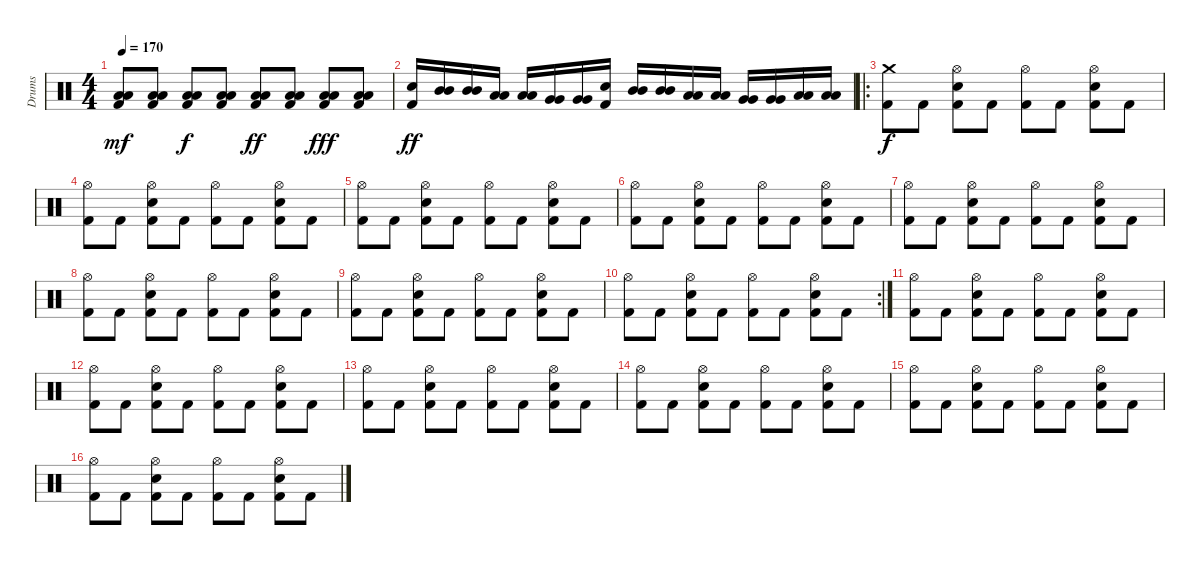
\track ("Drums" "Drums") {instrument percussion}
\staff {score}
\articulation defaults
\ts (4 4)
\tempo 170
\clef neutral
\ks c
("Low Floor Tom (hit)" "Low Floor Tom (hit)" "Kick (hit) 2").8{dy mf} ("Low Floor Tom (hit)" "Low Floor Tom (hit)" "Kick (hit) 2").8 ("Low Floor Tom (hit)" "Low Floor Tom (hit)" "Kick (hit) 2").8{dy f} ("Low Floor Tom (hit)" "Low Floor Tom (hit)" "Kick (hit) 2").8 ("Low Floor Tom (hit)" "Low Floor Tom (hit)" "Kick (hit) 2").8{dy ff} ("Low Floor Tom (hit)" "Low Floor Tom (hit)" "Kick (hit) 2").8 ("Low Floor Tom (hit)" "Low Floor Tom (hit)" "Kick (hit) 2").8{dy fff} ("Low Floor Tom (hit)" "Low Floor Tom (hit)" "Kick (hit) 2").8 |
("Snare (hit) 2" "Kick (hit) 2").16{dy ff} ("Mid Tom (hit)" "Mid Tom (hit)").16 ("Mid Tom (hit)" "Mid Tom (hit)").16 ("Low Tom (hit)" "Low Tom (hit)").16 ("Low Tom (hit)" "Low Tom (hit)").16 ("Very Low Tom (hit)" "Very Low Tom (hit)").16 ("Very Low Tom (hit)" "Very Low Tom (hit)").16 ("Snare (hit) 2" "Kick (hit) 2").16 ("Mid Tom (hit)" "Mid Tom (hit)").16 ("Mid Tom (hit)" "Mid Tom (hit)").16 ("Low Tom (hit)" "Low Tom (hit)").16 ("Low Tom (hit)" "Low Tom (hit)").16 ("Very Low Tom (hit)" "Very Low Tom (hit)").16 ("Very Low Tom (hit)" "Very Low Tom (hit)").16 ("Low Floor Tom (hit)" "Low Floor Tom (hit)").16 ("Low Floor Tom (hit)" "Low Floor Tom (hit)").16 |
\ro
("Crash medium (hit)" "Kick (hit) 2").8{dy f} "Kick (hit) 2".8 ("Hi-Hat (open)" "Snare (hit) 2" "Kick (hit) 2").8 "Kick (hit) 2".8 ("Hi-Hat (open)" "Kick (hit) 2").8 "Kick (hit) 2".8 ("Hi-Hat (open)" "Snare (hit) 2" "Kick (hit) 2").8 "Kick (hit) 2".8 |
("Hi-Hat (open)" "Kick (hit) 2").8 "Kick (hit) 2".8 ("Hi-Hat (open)" "Snare (hit) 2" "Kick (hit) 2").8 "Kick (hit) 2".8 ("Hi-Hat (open)" "Kick (hit) 2").8 "Kick (hit) 2".8 ("Hi-Hat (open)" "Snare (hit) 2" "Kick (hit) 2").8 "Kick (hit) 2".8 |
("Hi-Hat (open)" "Kick (hit) 2").8 "Kick (hit) 2".8 ("Hi-Hat (open)" "Snare (hit) 2" "Kick (hit) 2").8 "Kick (hit) 2".8 ("Hi-Hat (open)" "Kick (hit) 2").8 "Kick (hit) 2".8 ("Hi-Hat (open)" "Snare (hit) 2" "Kick (hit) 2").8 "Kick (hit) 2".8 |
("Hi-Hat (open)" "Kick (hit) 2").8 "Kick (hit) 2".8 ("Hi-Hat (open)" "Snare (hit) 2" "Kick (hit) 2").8 "Kick (hit) 2".8 ("Hi-Hat (open)" "Kick (hit) 2").8 "Kick (hit) 2".8 ("Hi-Hat (open)" "Snare (hit) 2" "Kick (hit) 2").8 "Kick (hit) 2".8 |
("Hi-Hat (open)" "Kick (hit) 2").8 "Kick (hit) 2".8 ("Hi-Hat (open)" "Snare (hit) 2" "Kick (hit) 2").8 "Kick (hit) 2".8 ("Hi-Hat (open)" "Kick (hit) 2").8 "Kick (hit) 2".8 ("Hi-Hat (open)" "Snare (hit) 2" "Kick (hit) 2").8 "Kick (hit) 2".8 |
("Hi-Hat (open)" "Kick (hit) 2").8 "Kick (hit) 2".8 ("Hi-Hat (open)" "Snare (hit) 2" "Kick (hit) 2").8 "Kick (hit) 2".8 ("Hi-Hat (open)" "Kick (hit) 2").8 "Kick (hit) 2".8 ("Hi-Hat (open)" "Snare (hit) 2" "Kick (hit) 2").8 "Kick (hit) 2".8 |
("Hi-Hat (open)" "Kick (hit) 2").8 "Kick (hit) 2".8 ("Hi-Hat (open)" "Snare (hit) 2" "Kick (hit) 2").8 "Kick (hit) 2".8 ("Hi-Hat (open)" "Kick (hit) 2").8 "Kick (hit) 2".8 ("Hi-Hat (open)" "Snare (hit) 2" "Kick (hit) 2").8 "Kick (hit) 2".8 |
\rc 2
("Hi-Hat (open)" "Kick (hit) 2").8 "Kick (hit) 2".8 ("Hi-Hat (open)" "Snare (hit) 2" "Kick (hit) 2").8 "Kick (hit) 2".8 ("Hi-Hat (open)" "Kick (hit) 2").8 "Kick (hit) 2".8 ("Hi-Hat (open)" "Snare (hit) 2" "Kick (hit) 2").8 "Kick (hit) 2".8 |
("Hi-Hat (open)" "Kick (hit) 2").8 "Kick (hit) 2".8 ("Hi-Hat (open)" "Snare (hit) 2" "Kick (hit) 2").8 "Kick (hit) 2".8 ("Hi-Hat (open)" "Kick (hit) 2").8 "Kick (hit) 2".8 ("Hi-Hat (open)" "Snare (hit) 2" "Kick (hit) 2").8 "Kick (hit) 2".8 |
("Hi-Hat (open)" "Kick (hit) 2").8 "Kick (hit) 2".8 ("Hi-Hat (open)" "Snare (hit) 2" "Kick (hit) 2").8 "Kick (hit) 2".8 ("Hi-Hat (open)" "Kick (hit) 2").8 "Kick (hit) 2".8 ("Hi-Hat (open)" "Snare (hit) 2" "Kick (hit) 2").8 "Kick (hit) 2".8 |
("Hi-Hat (open)" "Kick (hit) 2").8 "Kick (hit) 2".8 ("Hi-Hat (open)" "Snare (hit) 2" "Kick (hit) 2").8 "Kick (hit) 2".8 ("Hi-Hat (open)" "Kick (hit) 2").8 "Kick (hit) 2".8 ("Hi-Hat (open)" "Snare (hit) 2" "Kick (hit) 2").8 "Kick (hit) 2".8 |
("Hi-Hat (open)" "Kick (hit) 2").8 "Kick (hit) 2".8 ("Hi-Hat (open)" "Snare (hit) 2" "Kick (hit) 2").8 "Kick (hit) 2".8 ("Hi-Hat (open)" "Kick (hit) 2").8 "Kick (hit) 2".8 ("Hi-Hat (open)" "Snare (hit) 2" "Kick (hit) 2").8 "Kick (hit) 2".8 |
("Hi-Hat (open)" "Kick (hit) 2").8 "Kick (hit) 2".8 ("Hi-Hat (open)" "Snare (hit) 2" "Kick (hit) 2").8 "Kick (hit) 2".8 ("Hi-Hat (open)" "Kick (hit) 2").8 "Kick (hit) 2".8 ("Hi-Hat (open)" "Snare (hit) 2" "Kick (hit) 2").8 "Kick (hit) 2".8 |
("Hi-Hat (open)" "Kick (hit) 2").8 "Kick (hit) 2".8 ("Hi-Hat (open)" "Snare (hit) 2" "Kick (hit) 2").8 "Kick (hit) 2".8 ("Hi-Hat (open)" "Kick (hit) 2").8 "Kick (hit) 2".8 ("Hi-Hat (open)" "Snare (hit) 2" "Kick (hit) 2").8 "Kick (hit) 2".8
